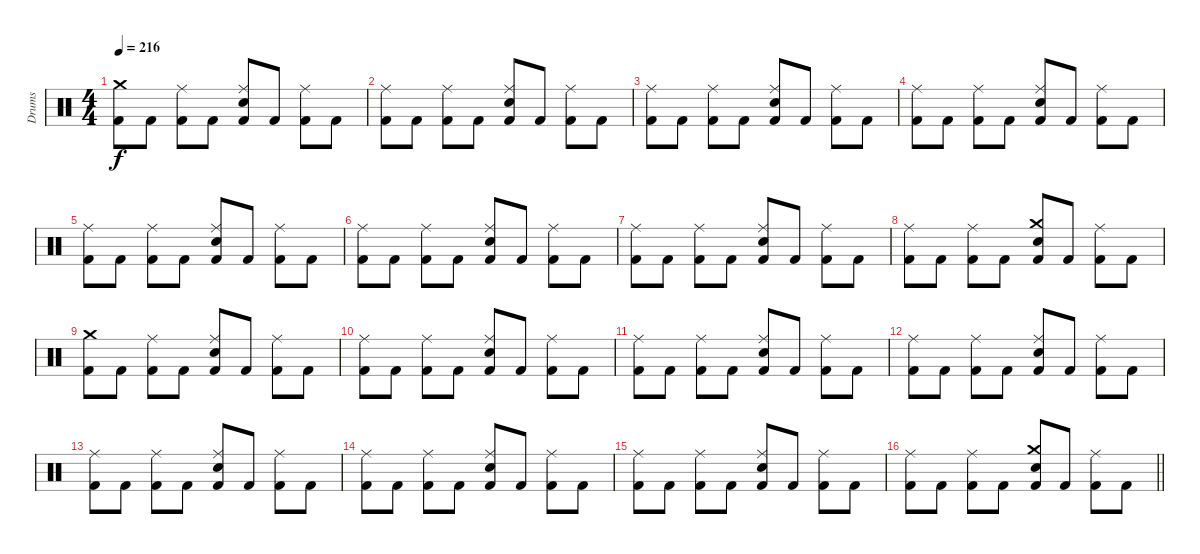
\track ("Drums" "Drums") {instrument percussion}
\staff {score}
\articulation defaults
\ts (4 4)
\tempo 216
\clef neutral
\ks c
("Kick (hit) 2" "Crash medium (hit)").8{dy f} "Kick (hit) 2".8 ("Kick (hit) 2" "Ride (middle)").8 "Kick (hit) 2".8 ("Kick (hit) 2" "Electric Snare (hit)" "Ride (middle)").8 "Kick (hit) 2".8 ("Kick (hit) 2" "Ride (middle)").8 "Kick (hit) 2".8 |
("Kick (hit) 2" "Ride (middle)").8 "Kick (hit) 2".8 ("Kick (hit) 2" "Ride (middle)").8 "Kick (hit) 2".8 ("Kick (hit) 2" "Electric Snare (hit)" "Ride (middle)").8 "Kick (hit) 2".8 ("Kick (hit) 2" "Ride (middle)").8 "Kick (hit) 2".8 |
("Kick (hit) 2" "Ride (middle)").8 "Kick (hit) 2".8 ("Kick (hit) 2" "Ride (middle)").8 "Kick (hit) 2".8 ("Kick (hit) 2" "Electric Snare (hit)" "Ride (middle)").8 "Kick (hit) 2".8 ("Kick (hit) 2" "Ride (middle)").8 "Kick (hit) 2".8 |
("Kick (hit) 2" "Ride (middle)").8 "Kick (hit) 2".8 ("Kick (hit) 2" "Ride (middle)").8 "Kick (hit) 2".8 ("Kick (hit) 2" "Electric Snare (hit)" "Ride (middle)").8 "Kick (hit) 2".8 ("Kick (hit) 2" "Ride (middle)").8 "Kick (hit) 2".8 |
("Kick (hit) 2" "Ride (middle)").8 "Kick (hit) 2".8 ("Kick (hit) 2" "Ride (middle)").8 "Kick (hit) 2".8 ("Kick (hit) 2" "Electric Snare (hit)" "Ride (middle)").8 "Kick (hit) 2".8 ("Kick (hit) 2" "Ride (middle)").8 "Kick (hit) 2".8 |
("Kick (hit) 2" "Ride (middle)").8 "Kick (hit) 2".8 ("Kick (hit) 2" "Ride (middle)").8 "Kick (hit) 2".8 ("Kick (hit) 2" "Electric Snare (hit)" "Ride (middle)").8 "Kick (hit) 2".8 ("Kick (hit) 2" "Ride (middle)").8 "Kick (hit) 2".8 |
("Kick (hit) 2" "Ride (middle)").8 "Kick (hit) 2".8 ("Kick (hit) 2" "Ride (middle)").8 "Kick (hit) 2".8 ("Kick (hit) 2" "Electric Snare (hit)" "Ride (middle)").8 "Kick (hit) 2".8 ("Kick (hit) 2" "Ride (middle)").8 "Kick (hit) 2".8 |
("Kick (hit) 2" "Ride (middle)").8 "Kick (hit) 2".8 ("Kick (hit) 2" "Ride (middle)").8 "Kick (hit) 2".8 ("Kick (hit) 2" "Electric Snare (hit)" "Crash medium (hit)").8 "Kick (hit) 2".8 ("Kick (hit) 2" "Ride (middle)").8 "Kick (hit) 2".8 |
("Kick (hit) 2" "Crash medium (hit)").8 "Kick (hit) 2".8 ("Kick (hit) 2" "Ride (middle)").8 "Kick (hit) 2".8 ("Kick (hit) 2" "Electric Snare (hit)" "Ride (middle)").8 "Kick (hit) 2".8 ("Kick (hit) 2" "Ride (middle)").8 "Kick (hit) 2".8 |
("Kick (hit) 2" "Ride (middle)").8 "Kick (hit) 2".8 ("Kick (hit) 2" "Ride (middle)").8 "Kick (hit) 2".8 ("Kick (hit) 2" "Electric Snare (hit)" "Ride (middle)").8 "Kick (hit) 2".8 ("Kick (hit) 2" "Ride (middle)").8 "Kick (hit) 2".8 |
("Kick (hit) 2" "Ride (middle)").8 "Kick (hit) 2".8 ("Kick (hit) 2" "Ride (middle)").8 "Kick (hit) 2".8 ("Kick (hit) 2" "Electric Snare (hit)" "Ride (middle)").8 "Kick (hit) 2".8 ("Kick (hit) 2" "Ride (middle)").8 "Kick (hit) 2".8 |
("Kick (hit) 2" "Ride (middle)").8 "Kick (hit) 2".8 ("Kick (hit) 2" "Ride (middle)").8 "Kick (hit) 2".8 ("Kick (hit) 2" "Electric Snare (hit)" "Ride (middle)").8 "Kick (hit) 2".8 ("Kick (hit) 2" "Ride (middle)").8 "Kick (hit) 2".8 |
("Kick (hit) 2" "Ride (middle)").8 "Kick (hit) 2".8 ("Kick (hit) 2" "Ride (middle)").8 "Kick (hit) 2".8 ("Kick (hit) 2" "Electric Snare (hit)" "Ride (middle)").8 "Kick (hit) 2".8 ("Kick (hit) 2" "Ride (middle)").8 "Kick (hit) 2".8 |
("Kick (hit) 2" "Ride (middle)").8 "Kick (hit) 2".8 ("Kick (hit) 2" "Ride (middle)").8 "Kick (hit) 2".8 ("Kick (hit) 2" "Electric Snare (hit)" "Ride (middle)").8 "Kick (hit) 2".8 ("Kick (hit) 2" "Ride (middle)").8 "Kick (hit) 2".8 |
("Kick (hit) 2" "Ride (middle)").8 "Kick (hit) 2".8 ("Kick (hit) 2" "Ride (middle)").8 "Kick (hit) 2".8 ("Kick (hit) 2" "Electric Snare (hit)" "Ride (middle)").8 "Kick (hit) 2".8 ("Kick (hit) 2" "Ride (middle)").8 "Kick (hit) 2".8 |
\barLineRight lightlight
("Kick (hit) 2" "Ride (middle)").8 "Kick (hit) 2".8 ("Kick (hit) 2" "Ride (middle)").8 "Kick (hit) 2".8 ("Kick (hit) 2" "Electric Snare (hit)" "Crash medium (hit)").8 "Kick (hit) 2".8 ("Kick (hit) 2" "Ride (middle)").8 "Kick (hit) 2".8
